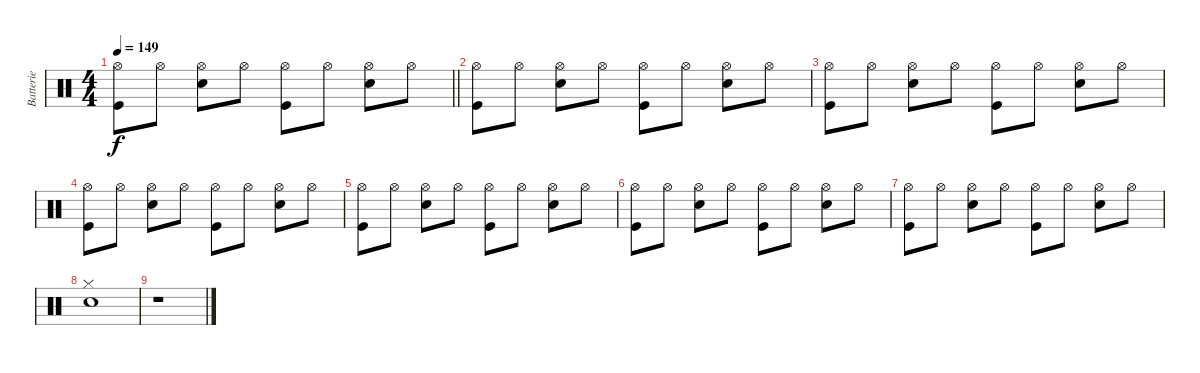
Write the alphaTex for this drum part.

\track ("Batterie" "Batterie") {instrument percussion}
\staff {score}
\articulation defaults
\ts (4 4)
\tempo 149
\clef neutral
\barLineRight lightlight
\ks c
("Hi-Hat (open)" "Kick (hit)").8{dy f} "Hi-Hat (open)".8 ("Hi-Hat (open)" "Snare (hit) 2").8 "Hi-Hat (open)".8 ("Hi-Hat (open)" "Kick (hit)").8 "Hi-Hat (open)".8 ("Hi-Hat (open)" "Snare (hit) 2").8 "Hi-Hat (open)".8 |
("Hi-Hat (open)" "Kick (hit)").8 "Hi-Hat (open)".8 ("Hi-Hat (open)" "Snare (hit) 2").8 "Hi-Hat (open)".8 ("Hi-Hat (open)" "Kick (hit)").8 "Hi-Hat (open)".8 ("Hi-Hat (open)" "Snare (hit) 2").8 "Hi-Hat (open)".8 |
("Hi-Hat (open)" "Kick (hit)").8 "Hi-Hat (open)".8 ("Hi-Hat (open)" "Snare (hit) 2").8 "Hi-Hat (open)".8 ("Hi-Hat (open)" "Kick (hit)").8 "Hi-Hat (open)".8 ("Hi-Hat (open)" "Snare (hit) 2").8 "Hi-Hat (open)".8 |
("Hi-Hat (open)" "Kick (hit)").8 "Hi-Hat (open)".8 ("Hi-Hat (open)" "Snare (hit) 2").8 "Hi-Hat (open)".8 ("Hi-Hat (open)" "Kick (hit)").8 "Hi-Hat (open)".8 ("Hi-Hat (open)" "Snare (hit) 2").8 "Hi-Hat (open)".8 |
("Hi-Hat (open)" "Kick (hit)").8 "Hi-Hat (open)".8 ("Hi-Hat (open)" "Snare (hit) 2").8 "Hi-Hat (open)".8 ("Hi-Hat (open)" "Kick (hit)").8 "Hi-Hat (open)".8 ("Hi-Hat (open)" "Snare (hit) 2").8 "Hi-Hat (open)".8 |
("Hi-Hat (open)" "Kick (hit)").8 "Hi-Hat (open)".8 ("Hi-Hat (open)" "Snare (hit) 2").8 "Hi-Hat (open)".8 ("Hi-Hat (open)" "Kick (hit)").8 "Hi-Hat (open)".8 ("Hi-Hat (open)" "Snare (hit) 2").8 "Hi-Hat (open)".8 |
("Hi-Hat (open)" "Kick (hit)").8 "Hi-Hat (open)".8 ("Hi-Hat (open)" "Snare (hit) 2").8 "Hi-Hat (open)".8 ("Hi-Hat (open)" "Kick (hit)").8 "Hi-Hat (open)".8 ("Hi-Hat (open)" "Snare (hit) 2").8 "Hi-Hat (open)".8 |
("Hi-Hat (closed)" "Snare (hit) 2").1 |
r.1
